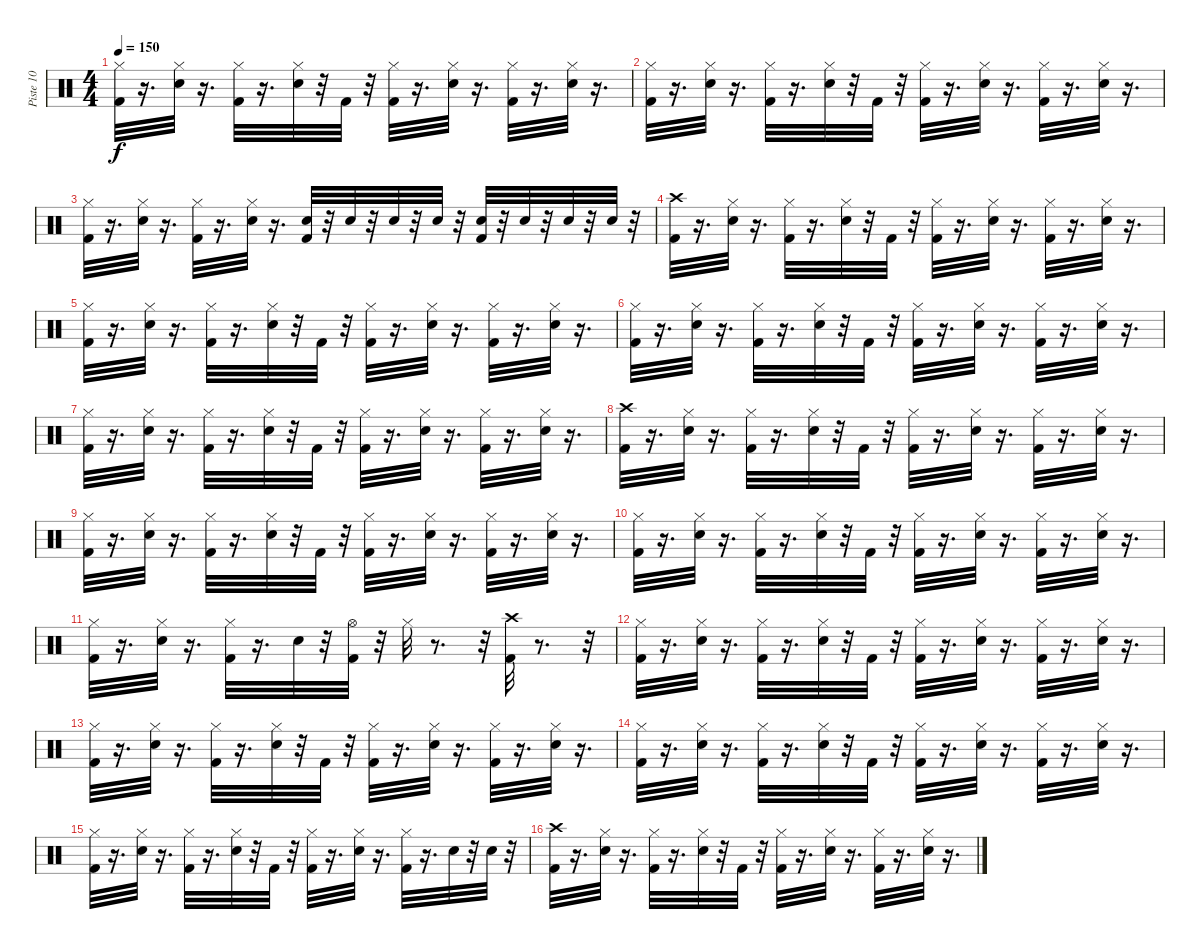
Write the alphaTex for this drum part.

\track ("Piste 10" "Piste 10") {instrument percussion}
\staff {score}
\articulation defaults
\ts (4 4)
\tempo 150
\clef neutral
\ks c
("Hi-Hat (closed)" "Kick (hit) 2").32{dy f} r.16{d} ("Hi-Hat (closed)" "Snare (hit) 2").32 r.16{d} ("Hi-Hat (closed)" "Kick (hit) 2").32 r.16{d} ("Hi-Hat (closed)" "Snare (hit) 2").32 r.32 "Kick (hit) 2".32 r.32 ("Hi-Hat (closed)" "Kick (hit) 2").32 r.16{d} ("Hi-Hat (closed)" "Snare (hit) 2").32 r.16{d} ("Hi-Hat (closed)" "Kick (hit) 2").32 r.16{d} ("Hi-Hat (closed)" "Snare (hit) 2").32 r.16{d} |
("Hi-Hat (closed)" "Kick (hit) 2").32 r.16{d} ("Hi-Hat (closed)" "Snare (hit) 2").32 r.16{d} ("Hi-Hat (closed)" "Kick (hit) 2").32 r.16{d} ("Hi-Hat (closed)" "Snare (hit) 2").32 r.32 "Kick (hit) 2".32 r.32 ("Hi-Hat (closed)" "Kick (hit) 2").32 r.16{d} ("Hi-Hat (closed)" "Snare (hit) 2").32 r.16{d} ("Hi-Hat (closed)" "Kick (hit) 2").32 r.16{d} ("Hi-Hat (closed)" "Snare (hit) 2").32 r.16{d} |
("Hi-Hat (closed)" "Kick (hit) 2").32 r.16{d} ("Hi-Hat (closed)" "Snare (hit) 2").32 r.16{d} ("Hi-Hat (closed)" "Kick (hit) 2").32 r.16{d} ("Hi-Hat (closed)" "Snare (hit) 2").32 r.16{d} ("Kick (hit) 2" "Snare (hit) 2").32 r.32 "Snare (hit) 2".32 r.32 "Snare (hit) 2".32 r.32 "Snare (hit) 2".32 r.32 ("Kick (hit) 2" "Snare (hit) 2").32 r.32 "Snare (hit) 2".32 r.32 "Snare (hit) 2".32 r.32 "Snare (hit) 2".32 r.32 |
("Crash high (hit)" "Kick (hit) 2").32 r.16{d} ("Hi-Hat (closed)" "Snare (hit) 2").32 r.16{d} ("Hi-Hat (closed)" "Kick (hit) 2").32 r.16{d} ("Hi-Hat (closed)" "Snare (hit) 2").32 r.32 "Kick (hit) 2".32 r.32 ("Hi-Hat (closed)" "Kick (hit) 2").32 r.16{d} ("Hi-Hat (closed)" "Snare (hit) 2").32 r.16{d} ("Hi-Hat (closed)" "Kick (hit) 2").32 r.16{d} ("Hi-Hat (closed)" "Snare (hit) 2").32 r.16{d} |
("Hi-Hat (closed)" "Kick (hit) 2").32 r.16{d} ("Hi-Hat (closed)" "Snare (hit) 2").32 r.16{d} ("Hi-Hat (closed)" "Kick (hit) 2").32 r.16{d} ("Hi-Hat (closed)" "Snare (hit) 2").32 r.32 "Kick (hit) 2".32 r.32 ("Hi-Hat (closed)" "Kick (hit) 2").32 r.16{d} ("Hi-Hat (closed)" "Snare (hit) 2").32 r.16{d} ("Hi-Hat (closed)" "Kick (hit) 2").32 r.16{d} ("Hi-Hat (closed)" "Snare (hit) 2").32 r.16{d} |
("Hi-Hat (closed)" "Kick (hit) 2").32 r.16{d} ("Hi-Hat (closed)" "Snare (hit) 2").32 r.16{d} ("Hi-Hat (closed)" "Kick (hit) 2").32 r.16{d} ("Hi-Hat (closed)" "Snare (hit) 2").32 r.32 "Kick (hit) 2".32 r.32 ("Hi-Hat (closed)" "Kick (hit) 2").32 r.16{d} ("Hi-Hat (closed)" "Snare (hit) 2").32 r.16{d} ("Hi-Hat (closed)" "Kick (hit) 2").32 r.16{d} ("Hi-Hat (closed)" "Snare (hit) 2").32 r.16{d} |
("Hi-Hat (closed)" "Kick (hit) 2").32 r.16{d} ("Hi-Hat (closed)" "Snare (hit) 2").32 r.16{d} ("Hi-Hat (closed)" "Kick (hit) 2").32 r.16{d} ("Hi-Hat (closed)" "Snare (hit) 2").32 r.32 "Kick (hit) 2".32 r.32 ("Hi-Hat (closed)" "Kick (hit) 2").32 r.16{d} ("Hi-Hat (closed)" "Snare (hit) 2").32 r.16{d} ("Hi-Hat (closed)" "Kick (hit) 2").32 r.16{d} ("Hi-Hat (closed)" "Snare (hit) 2").32 r.16{d} |
("Crash high (hit)" "Kick (hit) 2").32 r.16{d} ("Hi-Hat (closed)" "Snare (hit) 2").32 r.16{d} ("Hi-Hat (closed)" "Kick (hit) 2").32 r.16{d} ("Hi-Hat (closed)" "Snare (hit) 2").32 r.32 "Kick (hit) 2".32 r.32 ("Hi-Hat (closed)" "Kick (hit) 2").32 r.16{d} ("Hi-Hat (closed)" "Snare (hit) 2").32 r.16{d} ("Hi-Hat (closed)" "Kick (hit) 2").32 r.16{d} ("Hi-Hat (closed)" "Snare (hit) 2").32 r.16{d} |
("Hi-Hat (closed)" "Kick (hit) 2").32 r.16{d} ("Hi-Hat (closed)" "Snare (hit) 2").32 r.16{d} ("Hi-Hat (closed)" "Kick (hit) 2").32 r.16{d} ("Hi-Hat (closed)" "Snare (hit) 2").32 r.32 "Kick (hit) 2".32 r.32 ("Hi-Hat (closed)" "Kick (hit) 2").32 r.16{d} ("Hi-Hat (closed)" "Snare (hit) 2").32 r.16{d} ("Hi-Hat (closed)" "Kick (hit) 2").32 r.16{d} ("Hi-Hat (closed)" "Snare (hit) 2").32 r.16{d} |
("Hi-Hat (closed)" "Kick (hit) 2").32 r.16{d} ("Hi-Hat (closed)" "Snare (hit) 2").32 r.16{d} ("Hi-Hat (closed)" "Kick (hit) 2").32 r.16{d} ("Hi-Hat (closed)" "Snare (hit) 2").32 r.32 "Kick (hit) 2".32 r.32 ("Hi-Hat (closed)" "Kick (hit) 2").32 r.16{d} ("Hi-Hat (closed)" "Snare (hit) 2").32 r.16{d} ("Hi-Hat (closed)" "Kick (hit) 2").32 r.16{d} ("Hi-Hat (closed)" "Snare (hit) 2").32 r.16{d} |
("Hi-Hat (closed)" "Kick (hit) 2").32 r.16{d} ("Hi-Hat (closed)" "Snare (hit) 2").32 r.16{d} ("Hi-Hat (closed)" "Kick (hit) 2").32 r.16{d} "Snare (hit) 2".32 r.32 ("Kick (hit) 2" "Hi-Hat (open)").32 r.32 "Hi-Hat (closed)".32 r.8{d} r.32 ("Crash high (hit)" "Kick (hit) 2").32 r.8{d} r.32 |
("Hi-Hat (closed)" "Kick (hit) 2").32 r.16{d} ("Hi-Hat (closed)" "Snare (hit) 2").32 r.16{d} ("Hi-Hat (closed)" "Kick (hit) 2").32 r.16{d} ("Hi-Hat (closed)" "Snare (hit) 2").32 r.32 "Kick (hit) 2".32 r.32 ("Hi-Hat (closed)" "Kick (hit) 2").32 r.16{d} ("Hi-Hat (closed)" "Snare (hit) 2").32 r.16{d} ("Hi-Hat (closed)" "Kick (hit) 2").32 r.16{d} ("Hi-Hat (closed)" "Snare (hit) 2").32 r.16{d} |
("Hi-Hat (closed)" "Kick (hit) 2").32 r.16{d} ("Hi-Hat (closed)" "Snare (hit) 2").32 r.16{d} ("Hi-Hat (closed)" "Kick (hit) 2").32 r.16{d} ("Hi-Hat (closed)" "Snare (hit) 2").32 r.32 "Kick (hit) 2".32 r.32 ("Hi-Hat (closed)" "Kick (hit) 2").32 r.16{d} ("Hi-Hat (closed)" "Snare (hit) 2").32 r.16{d} ("Hi-Hat (closed)" "Kick (hit) 2").32 r.16{d} ("Hi-Hat (closed)" "Snare (hit) 2").32 r.16{d} |
("Hi-Hat (closed)" "Kick (hit) 2").32 r.16{d} ("Hi-Hat (closed)" "Snare (hit) 2").32 r.16{d} ("Hi-Hat (closed)" "Kick (hit) 2").32 r.16{d} ("Hi-Hat (closed)" "Snare (hit) 2").32 r.32 "Kick (hit) 2".32 r.32 ("Hi-Hat (closed)" "Kick (hit) 2").32 r.16{d} ("Hi-Hat (closed)" "Snare (hit) 2").32 r.16{d} ("Hi-Hat (closed)" "Kick (hit) 2").32 r.16{d} ("Hi-Hat (closed)" "Snare (hit) 2").32 r.16{d} |
("Hi-Hat (closed)" "Kick (hit) 2").32 r.16{d} ("Hi-Hat (closed)" "Snare (hit) 2").32 r.16{d} ("Hi-Hat (closed)" "Kick (hit) 2").32 r.16{d} ("Hi-Hat (closed)" "Snare (hit) 2").32 r.32 "Kick (hit) 2".32 r.32 ("Hi-Hat (closed)" "Kick (hit) 2").32 r.16{d} ("Hi-Hat (closed)" "Snare (hit) 2").32 r.16{d} ("Hi-Hat (closed)" "Kick (hit) 2").32 r.16{d} "Snare (hit) 2".32 r.32 "Snare (hit) 2".32 r.32 |
("Crash high (hit)" "Kick (hit) 2").32 r.16{d} ("Hi-Hat (closed)" "Snare (hit) 2").32 r.16{d} ("Hi-Hat (closed)" "Kick (hit) 2").32 r.16{d} ("Hi-Hat (closed)" "Snare (hit) 2").32 r.32 "Kick (hit) 2".32 r.32 ("Hi-Hat (closed)" "Kick (hit) 2").32 r.16{d} ("Hi-Hat (closed)" "Snare (hit) 2").32 r.16{d} ("Hi-Hat (closed)" "Kick (hit) 2").32 r.16{d} ("Hi-Hat (closed)" "Snare (hit) 2").32 r.16{d}
